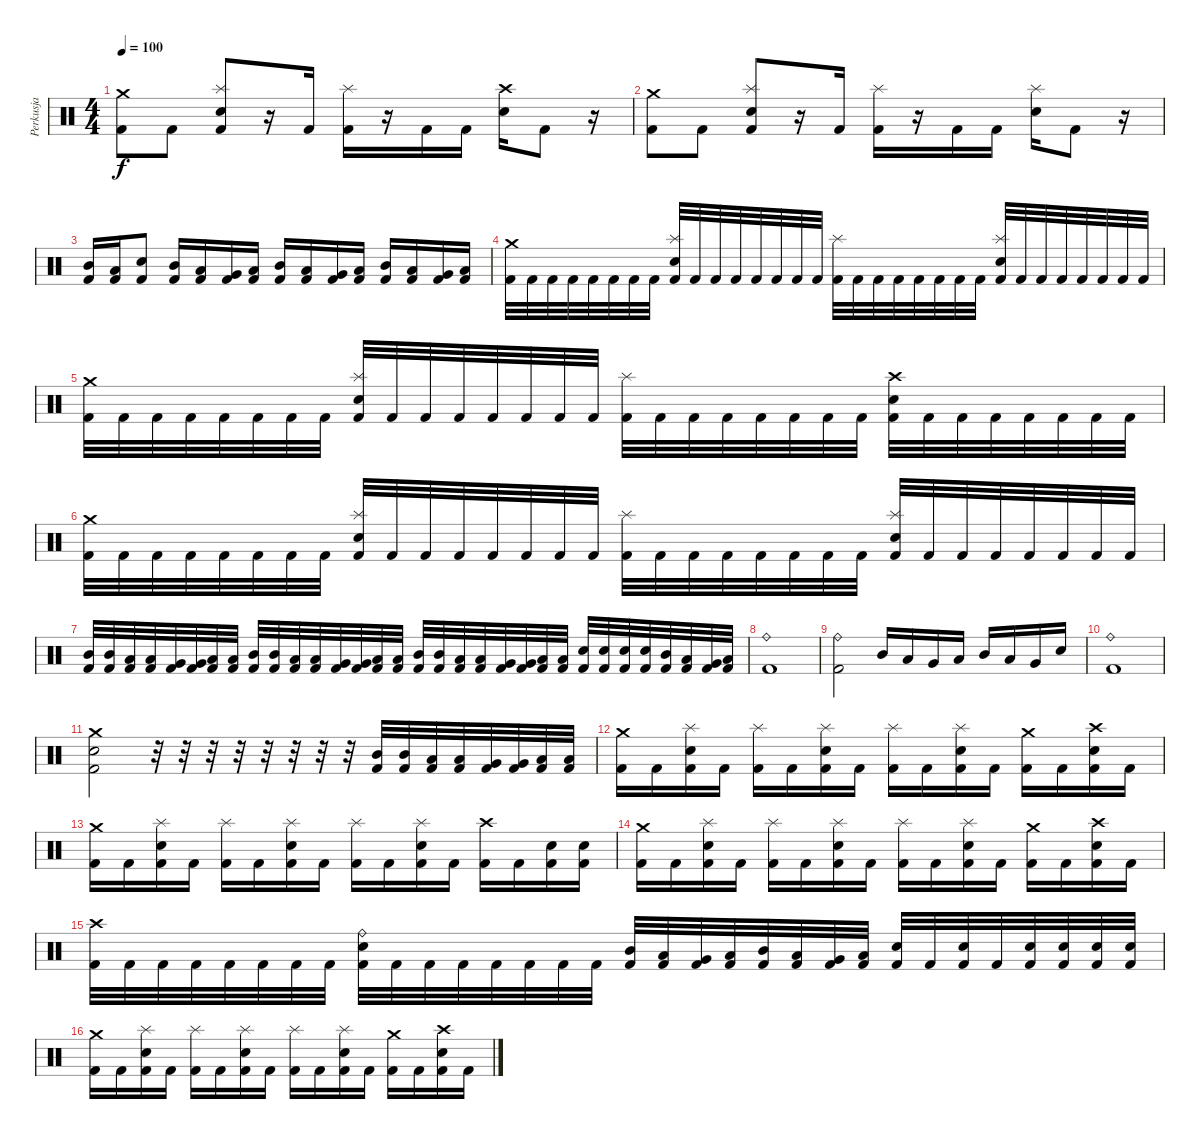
\track ("Perkusja" "Perkusja") {instrument percussion}
\staff {score}
\articulation defaults
\ts (4 4)
\tempo 100
\clef neutral
\ks c
("Crash medium (hit)" "Kick (hit) 2").8{dy f} "Kick (hit) 2".8 ("Splash (hit)" "Electric Snare (hit)" "Kick (hit) 2").8 r.16 "Kick (hit) 2".16 ("Splash (hit)" "Kick (hit) 2").16 r.16 "Kick (hit) 2".16 "Kick (hit) 2".16 ("Crash high (hit)" "Electric Snare (hit)").16 "Kick (hit) 2".8 r.16 |
("Crash medium (hit)" "Kick (hit) 2").8 "Kick (hit) 2".8 ("Splash (hit)" "Electric Snare (hit)" "Kick (hit) 2").8 r.16 "Kick (hit) 2".16 ("Splash (hit)" "Kick (hit) 2").16 r.16 "Kick (hit) 2".16 "Kick (hit) 2".16 ("Splash (hit)" "Electric Snare (hit)").16 "Kick (hit) 2".8 r.16 |
("Mid Tom (hit)" "Kick (hit) 2").16 ("Low Tom (hit)" "Kick (hit) 2").16 ("Electric Snare (hit)" "Kick (hit) 2").8 ("Mid Tom (hit)" "Kick (hit) 2").16 ("Low Tom (hit)" "Kick (hit) 2").16 ("Very Low Tom (hit)" "Kick (hit) 2").16 ("Low Floor Tom (hit)" "Kick (hit) 2").16 ("Mid Tom (hit)" "Kick (hit) 2").16 ("Low Tom (hit)" "Kick (hit) 2").16 ("Very Low Tom (hit)" "Kick (hit) 2").16 ("Low Floor Tom (hit)" "Kick (hit) 2").16 ("Mid Tom (hit)" "Kick (hit) 2").16 ("Low Tom (hit)" "Kick (hit) 2").16 ("Very Low Tom (hit)" "Kick (hit) 2").16 ("Low Floor Tom (hit)" "Kick (hit) 2").16 |
("Crash medium (hit)" "Kick (hit) 2").32 "Kick (hit) 2".32 "Kick (hit) 2".32 "Kick (hit) 2".32 "Kick (hit) 2".32 "Kick (hit) 2".32 "Kick (hit) 2".32 "Kick (hit) 2".32 ("Splash (hit)" "Electric Snare (hit)" "Kick (hit) 2").32 "Kick (hit) 2".32 "Kick (hit) 2".32 "Kick (hit) 2".32 "Kick (hit) 2".32 "Kick (hit) 2".32 "Kick (hit) 2".32 "Kick (hit) 2".32 ("Splash (hit)" "Kick (hit) 2").32 "Kick (hit) 2".32 "Kick (hit) 2".32 "Kick (hit) 2".32 "Kick (hit) 2".32 "Kick (hit) 2".32 "Kick (hit) 2".32 "Kick (hit) 2".32 ("Splash (hit)" "Electric Snare (hit)" "Kick (hit) 2").32 "Kick (hit) 2".32 "Kick (hit) 2".32 "Kick (hit) 2".32 "Kick (hit) 2".32 "Kick (hit) 2".32 "Kick (hit) 2".32 "Kick (hit) 2".32 |
("Crash medium (hit)" "Kick (hit) 2").32 "Kick (hit) 2".32 "Kick (hit) 2".32 "Kick (hit) 2".32 "Kick (hit) 2".32 "Kick (hit) 2".32 "Kick (hit) 2".32 "Kick (hit) 2".32 ("Splash (hit)" "Electric Snare (hit)" "Kick (hit) 2").32 "Kick (hit) 2".32 "Kick (hit) 2".32 "Kick (hit) 2".32 "Kick (hit) 2".32 "Kick (hit) 2".32 "Kick (hit) 2".32 "Kick (hit) 2".32 ("Splash (hit)" "Kick (hit) 2").32 "Kick (hit) 2".32 "Kick (hit) 2".32 "Kick (hit) 2".32 "Kick (hit) 2".32 "Kick (hit) 2".32 "Kick (hit) 2".32 "Kick (hit) 2".32 ("Crash high (hit)" "Electric Snare (hit)" "Kick (hit) 2").32 "Kick (hit) 2".32 "Kick (hit) 2".32 "Kick (hit) 2".32 "Kick (hit) 2".32 "Kick (hit) 2".32 "Kick (hit) 2".32 "Kick (hit) 2".32 |
("Crash medium (hit)" "Kick (hit) 2").32 "Kick (hit) 2".32 "Kick (hit) 2".32 "Kick (hit) 2".32 "Kick (hit) 2".32 "Kick (hit) 2".32 "Kick (hit) 2".32 "Kick (hit) 2".32 ("Splash (hit)" "Electric Snare (hit)" "Kick (hit) 2").32 "Kick (hit) 2".32 "Kick (hit) 2".32 "Kick (hit) 2".32 "Kick (hit) 2".32 "Kick (hit) 2".32 "Kick (hit) 2".32 "Kick (hit) 2".32 ("Splash (hit)" "Kick (hit) 2").32 "Kick (hit) 2".32 "Kick (hit) 2".32 "Kick (hit) 2".32 "Kick (hit) 2".32 "Kick (hit) 2".32 "Kick (hit) 2".32 "Kick (hit) 2".32 ("Splash (hit)" "Electric Snare (hit)" "Kick (hit) 2").32 "Kick (hit) 2".32 "Kick (hit) 2".32 "Kick (hit) 2".32 "Kick (hit) 2".32 "Kick (hit) 2".32 "Kick (hit) 2".32 "Kick (hit) 2".32 |
("Mid Tom (hit)" "Kick (hit) 2").32 ("Mid Tom (hit)" "Kick (hit) 2").32 ("Low Tom (hit)" "Kick (hit) 2").32 ("Low Tom (hit)" "Kick (hit) 2").32 ("Very Low Tom (hit)" "Kick (hit) 2").32 ("Very Low Tom (hit)" "Kick (hit) 2").32 ("Low Floor Tom (hit)" "Kick (hit) 2").32 ("Low Floor Tom (hit)" "Kick (hit) 2").32 ("Mid Tom (hit)" "Kick (hit) 2").32 ("Mid Tom (hit)" "Kick (hit) 2").32 ("Low Tom (hit)" "Kick (hit) 2").32 ("Low Tom (hit)" "Kick (hit) 2").32 ("Very Low Tom (hit)" "Kick (hit) 2").32 ("Very Low Tom (hit)" "Kick (hit) 2").32 ("Low Floor Tom (hit)" "Kick (hit) 2").32 ("Low Floor Tom (hit)" "Kick (hit) 2").32 ("Mid Tom (hit)" "Kick (hit) 2").32 ("Mid Tom (hit)" "Kick (hit) 2").32 ("Low Tom (hit)" "Kick (hit) 2").32 ("Low Tom (hit)" "Kick (hit) 2").32 ("Very Low Tom (hit)" "Kick (hit) 2").32 ("Very Low Tom (hit)" "Kick (hit) 2").32 ("Low Floor Tom (hit)" "Kick (hit) 2").32 ("Low Floor Tom (hit)" "Kick (hit) 2").32 ("Electric Snare (hit)" "Kick (hit) 2").32 ("Electric Snare (hit)" "Kick (hit) 2").32 ("Electric Snare (hit)" "Kick (hit) 2").32 ("Electric Snare (hit)" "Kick (hit) 2").32 ("Mid Tom (hit)" "Kick (hit) 2").32 ("Low Tom (hit)" "Kick (hit) 2").32 ("Very Low Tom (hit)" "Kick (hit) 2").32 ("Low Floor Tom (hit)" "Kick (hit) 2").32 |
("Ride (bell)" "Kick (hit) 2").1 |
("Ride (bell)" "Kick (hit) 2").2 "Mid Tom (hit)".16 "Low Tom (hit)".16 "Very Low Tom (hit)".16 "Low Floor Tom (hit)".16 "Mid Tom (hit)".16 "Low Tom (hit)".16 "Very Low Tom (hit)".16 "Electric Snare (hit)".16 |
("Ride (bell)" "Kick (hit) 2").1 |
("Snare (hit) 2" "Kick (hit) 2" "Crash medium (hit)").2 r.32 r.32 r.32 r.32 r.32 r.32 r.32 r.32 ("Mid Tom (hit)" "Kick (hit) 2").32 ("Mid Tom (hit)" "Kick (hit) 2").32 ("Low Tom (hit)" "Kick (hit) 2").32 ("Low Tom (hit)" "Kick (hit) 2").32 ("Very Low Tom (hit)" "Kick (hit) 2").32 ("Very Low Tom (hit)" "Kick (hit) 2").32 ("Low Floor Tom (hit)" "Kick (hit) 2").32 ("Low Floor Tom (hit)" "Kick (hit) 2").32 |
("Crash medium (hit)" "Kick (hit) 2").16 "Kick (hit) 2".16 ("Splash (hit)" "Electric Snare (hit)" "Kick (hit) 2").16 "Kick (hit) 2".16 ("Splash (hit)" "Kick (hit) 2").16 "Kick (hit) 2".16 ("Splash (hit)" "Electric Snare (hit)" "Kick (hit) 2").16 "Kick (hit) 2".16 ("Splash (hit)" "Kick (hit) 2").16 "Kick (hit) 2".16 ("Splash (hit)" "Electric Snare (hit)" "Kick (hit) 2").16 "Kick (hit) 2".16 ("Crash medium (hit)" "Kick (hit) 2").16 "Kick (hit) 2".16 ("Crash high (hit)" "Electric Snare (hit)" "Kick (hit) 2").16 "Kick (hit) 2".16 |
("Crash medium (hit)" "Kick (hit) 2").16 "Kick (hit) 2".16 ("Splash (hit)" "Electric Snare (hit)" "Kick (hit) 2").16 "Kick (hit) 2".16 ("Splash (hit)" "Kick (hit) 2").16 "Kick (hit) 2".16 ("Splash (hit)" "Electric Snare (hit)" "Kick (hit) 2").16 "Kick (hit) 2".16 ("Splash (hit)" "Kick (hit) 2").16 "Kick (hit) 2".16 ("Splash (hit)" "Electric Snare (hit)" "Kick (hit) 2").16 "Kick (hit) 2".16 ("Crash high (hit)" "Kick (hit) 2").16 "Kick (hit) 2".16 ("Electric Snare (hit)" "Kick (hit) 2").16 ("Electric Snare (hit)" "Kick (hit) 2").16 |
("Crash medium (hit)" "Kick (hit) 2").16 "Kick (hit) 2".16 ("Splash (hit)" "Electric Snare (hit)" "Kick (hit) 2").16 "Kick (hit) 2".16 ("Splash (hit)" "Kick (hit) 2").16 "Kick (hit) 2".16 ("Splash (hit)" "Electric Snare (hit)" "Kick (hit) 2").16 "Kick (hit) 2".16 ("Splash (hit)" "Kick (hit) 2").16 "Kick (hit) 2".16 ("Splash (hit)" "Electric Snare (hit)" "Kick (hit) 2").16 "Kick (hit) 2".16 ("Crash medium (hit)" "Kick (hit) 2").16 "Kick (hit) 2".16 ("Crash high (hit)" "Electric Snare (hit)" "Kick (hit) 2").16 "Kick (hit) 2".16 |
("Crash high (hit)" "Kick (hit) 2").32 "Kick (hit) 2".32 "Kick (hit) 2".32 "Kick (hit) 2".32 "Kick (hit) 2".32 "Kick (hit) 2".32 "Kick (hit) 2".32 "Kick (hit) 2".32 ("Ride (bell)" "Electric Snare (hit)" "Kick (hit) 2").32 "Kick (hit) 2".32 "Kick (hit) 2".32 "Kick (hit) 2".32 "Kick (hit) 2".32 "Kick (hit) 2".32 "Kick (hit) 2".32 "Kick (hit) 2".32 ("Mid Tom (hit)" "Kick (hit) 2").32 ("Low Tom (hit)" "Kick (hit) 2").32 ("Very Low Tom (hit)" "Kick (hit) 2").32 ("Low Floor Tom (hit)" "Kick (hit) 2").32 ("Mid Tom (hit)" "Kick (hit) 2").32 ("Low Tom (hit)" "Kick (hit) 2").32 ("Very Low Tom (hit)" "Kick (hit) 2").32 ("Low Floor Tom (hit)" "Kick (hit) 2").32 ("Electric Snare (hit)" "Kick (hit) 2").32 "Kick (hit) 2".32 ("Electric Snare (hit)" "Kick (hit) 2").32 "Kick (hit) 2".32 ("Electric Snare (hit)" "Kick (hit) 2").32 ("Electric Snare (hit)" "Kick (hit) 2").32 ("Electric Snare (hit)" "Kick (hit) 2").32 ("Electric Snare (hit)" "Kick (hit) 2").32 |
("Crash medium (hit)" "Kick (hit) 2").16 "Kick (hit) 2".16 ("Splash (hit)" "Electric Snare (hit)" "Kick (hit) 2").16 "Kick (hit) 2".16 ("Splash (hit)" "Kick (hit) 2").16 "Kick (hit) 2".16 ("Splash (hit)" "Electric Snare (hit)" "Kick (hit) 2").16 "Kick (hit) 2".16 ("Splash (hit)" "Kick (hit) 2").16 "Kick (hit) 2".16 ("Splash (hit)" "Electric Snare (hit)" "Kick (hit) 2").16 "Kick (hit) 2".16 ("Crash medium (hit)" "Kick (hit) 2").16 "Kick (hit) 2".16 ("Crash high (hit)" "Electric Snare (hit)" "Kick (hit) 2").16 "Kick (hit) 2".16
